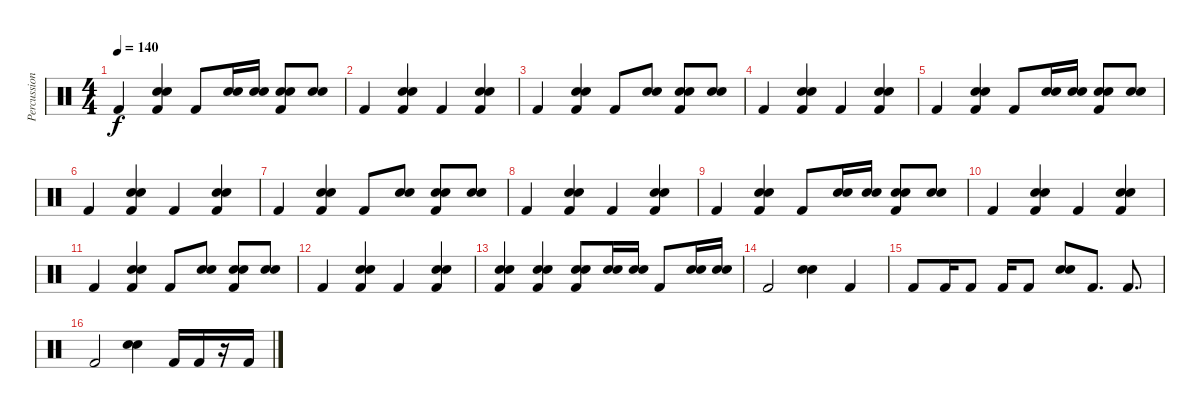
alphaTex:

\track ("Percussion" "Percussion") {instrument percussion}
\staff {score}
\articulation defaults
\ts (4 4)
\tempo 140
\clef neutral
\ks c "Kick (hit) 2".4{dy f}
("Snare (hit) 2" "Hand Clap (hit)" "Kick (hit) 2").4 "Kick (hit) 2".8 ("Snare (hit) 2" "Hand Clap (hit)").16 ("Snare (hit) 2" "Hand Clap (hit)").16 ("Snare (hit) 2" "Hand Clap (hit)" "Kick (hit) 2").8 ("Snare (hit) 2" "Hand Clap (hit)").8 |
"Kick (hit) 2".4 ("Snare (hit) 2" "Hand Clap (hit)" "Kick (hit) 2").4 "Kick (hit) 2".4 ("Snare (hit) 2" "Hand Clap (hit)" "Kick (hit) 2").4 |
"Kick (hit) 2".4 ("Snare (hit) 2" "Hand Clap (hit)" "Kick (hit) 2").4 "Kick (hit) 2".8 ("Snare (hit) 2" "Hand Clap (hit)").8 ("Snare (hit) 2" "Hand Clap (hit)" "Kick (hit) 2").8 ("Snare (hit) 2" "Hand Clap (hit)").8 |
"Kick (hit) 2".4 ("Snare (hit) 2" "Hand Clap (hit)" "Kick (hit) 2").4 "Kick (hit) 2".4 ("Snare (hit) 2" "Hand Clap (hit)" "Kick (hit) 2").4 |
"Kick (hit) 2".4 ("Snare (hit) 2" "Hand Clap (hit)" "Kick (hit) 2").4 "Kick (hit) 2".8 ("Snare (hit) 2" "Hand Clap (hit)").16 ("Snare (hit) 2" "Hand Clap (hit)").16 ("Snare (hit) 2" "Hand Clap (hit)" "Kick (hit) 2").8 ("Snare (hit) 2" "Hand Clap (hit)").8 |
"Kick (hit) 2".4 ("Snare (hit) 2" "Hand Clap (hit)" "Kick (hit) 2").4 "Kick (hit) 2".4 ("Snare (hit) 2" "Hand Clap (hit)" "Kick (hit) 2").4 |
"Kick (hit) 2".4 ("Snare (hit) 2" "Hand Clap (hit)" "Kick (hit) 2").4 "Kick (hit) 2".8 ("Snare (hit) 2" "Hand Clap (hit)").8 ("Snare (hit) 2" "Hand Clap (hit)" "Kick (hit) 2").8 ("Snare (hit) 2" "Hand Clap (hit)").8 |
"Kick (hit) 2".4 ("Snare (hit) 2" "Hand Clap (hit)" "Kick (hit) 2").4 "Kick (hit) 2".4 ("Snare (hit) 2" "Hand Clap (hit)" "Kick (hit) 2").4 |
"Kick (hit) 2".4 ("Snare (hit) 2" "Hand Clap (hit)" "Kick (hit) 2").4 "Kick (hit) 2".8 ("Snare (hit) 2" "Hand Clap (hit)").16 ("Snare (hit) 2" "Hand Clap (hit)").16 ("Snare (hit) 2" "Hand Clap (hit)" "Kick (hit) 2").8 ("Snare (hit) 2" "Hand Clap (hit)").8 |
"Kick (hit) 2".4 ("Snare (hit) 2" "Hand Clap (hit)" "Kick (hit) 2").4 "Kick (hit) 2".4 ("Snare (hit) 2" "Hand Clap (hit)" "Kick (hit) 2").4 |
"Kick (hit) 2".4 ("Snare (hit) 2" "Hand Clap (hit)" "Kick (hit) 2").4 "Kick (hit) 2".8 ("Snare (hit) 2" "Hand Clap (hit)").8 ("Snare (hit) 2" "Hand Clap (hit)" "Kick (hit) 2").8 ("Snare (hit) 2" "Hand Clap (hit)").8 |
"Kick (hit) 2".4 ("Snare (hit) 2" "Hand Clap (hit)" "Kick (hit) 2").4 "Kick (hit) 2".4 ("Snare (hit) 2" "Hand Clap (hit)" "Kick (hit) 2").4 |
("Snare (hit) 2" "Hand Clap (hit)" "Kick (hit) 2").4 ("Snare (hit) 2" "Hand Clap (hit)" "Kick (hit) 2").4 ("Snare (hit) 2" "Hand Clap (hit)" "Kick (hit) 2").8 ("Snare (hit) 2" "Hand Clap (hit)").16 ("Snare (hit) 2" "Hand Clap (hit)").16 "Kick (hit) 2".8 ("Snare (hit) 2" "Hand Clap (hit)").16 ("Snare (hit) 2" "Hand Clap (hit)").16 |
"Kick (hit) 2".2 ("Snare (hit) 2" "Hand Clap (hit)").4 "Kick (hit) 2".4 |
"Kick (hit) 2".8 "Kick (hit) 2".16 "Kick (hit) 2".8 "Kick (hit) 2".16 "Kick (hit) 2".8 ("Snare (hit) 2" "Hand Clap (hit)").8 "Kick (hit) 2".8{d} "Kick (hit) 2".8{d} |
"Kick (hit) 2".2 ("Snare (hit) 2" "Hand Clap (hit)").4 "Kick (hit) 2".16 "Kick (hit) 2".16 r.16 "Kick (hit) 2".16
